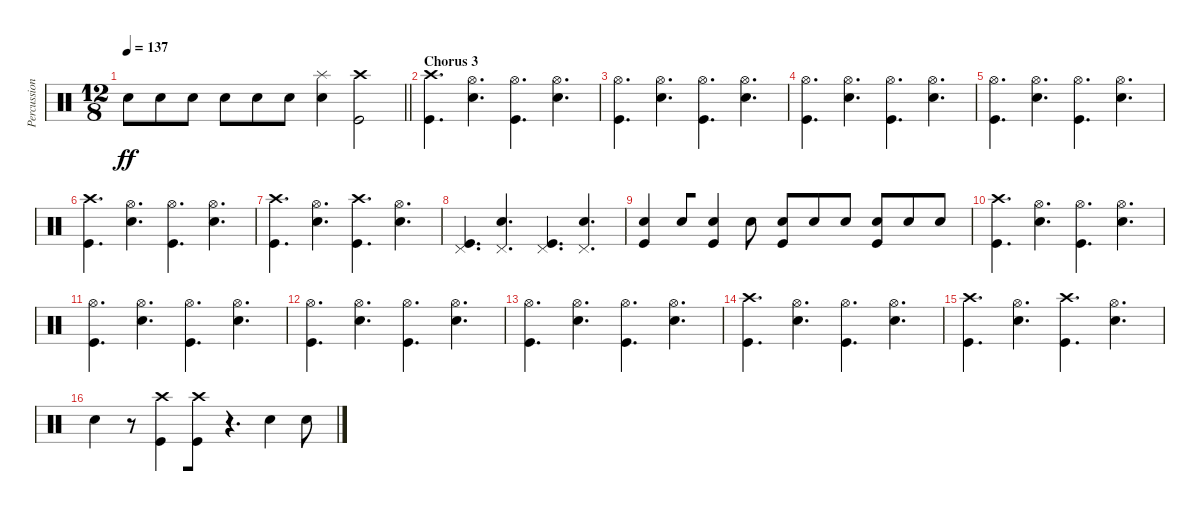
\track ("Percussion" "Percussion") {instrument percussion bank 255}
\staff {score}
\articulation defaults
\ts (12 8)
\tempo 137
\clef neutral
\barLineRight lightlight
\ks c "Electric Snare (hit)".8{dy ff beam merge} "Electric Snare (hit)".8 "Electric Snare (hit)".8 "Electric Snare (hit)".8{beam merge} "Electric Snare (hit)".8 "Electric Snare (hit)".8
("Splash (hit)" "Electric Snare (hit)").4 ("Crash high (hit)" "Kick (hit)").2 |
\section ("" "Chorus 3")
("Kick (hit)" "Crash high (hit)").4{d} ("Hi-Hat (open)" "Electric Snare (hit)").4{d} ("Hi-Hat (open)" "Kick (hit)").4{d} ("Hi-Hat (open)" "Electric Snare (hit)").4{d} |
("Kick (hit)" "Hi-Hat (open)").4{d} ("Hi-Hat (open)" "Electric Snare (hit)").4{d} ("Hi-Hat (open)" "Kick (hit)").4{d} ("Hi-Hat (open)" "Electric Snare (hit)").4{d} |
("Kick (hit)" "Hi-Hat (open)").4{d} ("Hi-Hat (open)" "Electric Snare (hit)").4{d} ("Hi-Hat (open)" "Kick (hit)").4{d} ("Hi-Hat (open)" "Electric Snare (hit)").4{d} |
("Kick (hit)" "Hi-Hat (open)").4{d} ("Hi-Hat (open)" "Electric Snare (hit)").4{d} ("Hi-Hat (open)" "Kick (hit)").4{d} ("Hi-Hat (open)" "Electric Snare (hit)").4{d} |
("Kick (hit)" "Crash high (hit)").4{d} ("Hi-Hat (open)" "Electric Snare (hit)").4{d} ("Hi-Hat (open)" "Kick (hit)").4{d} ("Hi-Hat (open)" "Electric Snare (hit)").4{d} |
("Kick (hit)" "Crash high (hit)").4{d} ("Hi-Hat (open)" "Electric Snare (hit)").4{d} ("Crash high (hit)" "Kick (hit)").4{d} ("Hi-Hat (open)" "Electric Snare (hit)").4{d} |
("Kick (hit)" "Pedal Hi-Hat (hit)").4{d} ("Pedal Hi-Hat (hit)" "Electric Snare (hit)").4{d} ("Pedal Hi-Hat (hit)" "Kick (hit)").4{d} ("Pedal Hi-Hat (hit)" "Electric Snare (hit)").4{d} |
("Electric Snare (hit)" "Kick (hit)").4 "Electric Snare (hit)".8{beam merge} ("Electric Snare (hit)" "Kick (hit)").4 "Electric Snare (hit)".8 ("Electric Snare (hit)" "Kick (hit)").8 "Electric Snare (hit)".8 "Electric Snare (hit)".8 ("Electric Snare (hit)" "Kick (hit)").8 "Electric Snare (hit)".8{beam merge} "Electric Snare (hit)".8 |
("Kick (hit)" "Crash high (hit)").4{d} ("Hi-Hat (open)" "Electric Snare (hit)").4{d} ("Hi-Hat (open)" "Kick (hit)").4{d} ("Hi-Hat (open)" "Electric Snare (hit)").4{d} |
("Kick (hit)" "Hi-Hat (open)").4{d} ("Hi-Hat (open)" "Electric Snare (hit)").4{d} ("Hi-Hat (open)" "Kick (hit)").4{d} ("Hi-Hat (open)" "Electric Snare (hit)").4{d} |
("Kick (hit)" "Hi-Hat (open)").4{d} ("Hi-Hat (open)" "Electric Snare (hit)").4{d} ("Hi-Hat (open)" "Kick (hit)").4{d} ("Hi-Hat (open)" "Electric Snare (hit)").4{d} |
("Kick (hit)" "Hi-Hat (open)").4{d} ("Hi-Hat (open)" "Electric Snare (hit)").4{d} ("Hi-Hat (open)" "Kick (hit)").4{d} ("Hi-Hat (open)" "Electric Snare (hit)").4{d} |
("Kick (hit)" "Crash high (hit)").4{d} ("Hi-Hat (open)" "Electric Snare (hit)").4{d} ("Hi-Hat (open)" "Kick (hit)").4{d} ("Hi-Hat (open)" "Electric Snare (hit)").4{d} |
("Kick (hit)" "Crash high (hit)").4{d} ("Hi-Hat (open)" "Electric Snare (hit)").4{d} ("Crash high (hit)" "Kick (hit)").4{d} ("Hi-Hat (open)" "Electric Snare (hit)").4{d} |
"Electric Snare (hit)".4 r.8{beam merge} ("Kick (hit)" "Crash high (hit)").4{beam merge} ("Kick (hit)" "Crash high (hit)").8 r.4{d} "Electric Snare (hit)".4 "Electric Snare (hit)".8
